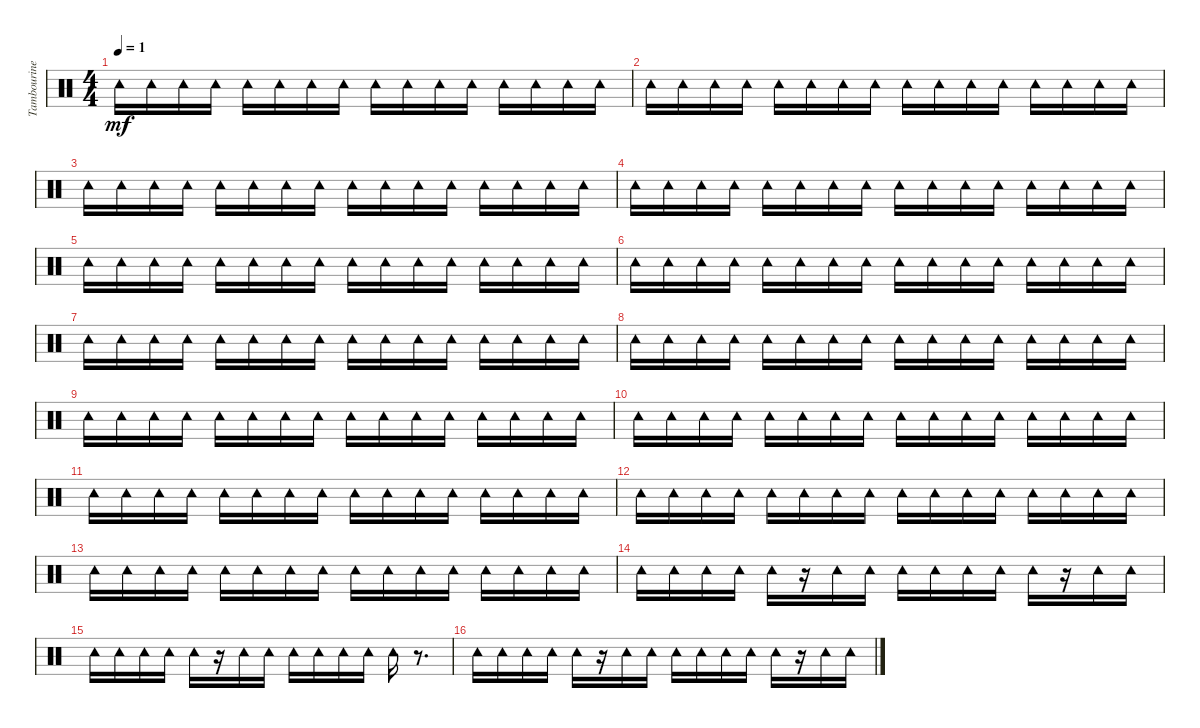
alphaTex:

\track ("Tambourine" "Tambourine") {instrument percussion}
\staff {score}
\articulation defaults
\ts (4 4)
\tempo 1
\clef neutral
\ks c "Tambourine (hit)".16{dy mf} "Tambourine (hit)".16 "Tambourine (hit)".16 "Tambourine (hit)".16 "Tambourine (hit)".16 "Tambourine (hit)".16 "Tambourine (hit)".16 "Tambourine (hit)".16 "Tambourine (hit)".16 "Tambourine (hit)".16 "Tambourine (hit)".16 "Tambourine (hit)".16 "Tambourine (hit)".16 "Tambourine (hit)".16 "Tambourine (hit)".16 "Tambourine (hit)".16
|
"Tambourine (hit)".16 "Tambourine (hit)".16 "Tambourine (hit)".16 "Tambourine (hit)".16 "Tambourine (hit)".16 "Tambourine (hit)".16 "Tambourine (hit)".16 "Tambourine (hit)".16 "Tambourine (hit)".16 "Tambourine (hit)".16 "Tambourine (hit)".16 "Tambourine (hit)".16 "Tambourine (hit)".16 "Tambourine (hit)".16 "Tambourine (hit)".16 "Tambourine (hit)".16 |
"Tambourine (hit)".16 "Tambourine (hit)".16 "Tambourine (hit)".16 "Tambourine (hit)".16 "Tambourine (hit)".16 "Tambourine (hit)".16 "Tambourine (hit)".16 "Tambourine (hit)".16 "Tambourine (hit)".16 "Tambourine (hit)".16 "Tambourine (hit)".16 "Tambourine (hit)".16 "Tambourine (hit)".16 "Tambourine (hit)".16 "Tambourine (hit)".16 "Tambourine (hit)".16 |
"Tambourine (hit)".16 "Tambourine (hit)".16 "Tambourine (hit)".16 "Tambourine (hit)".16 "Tambourine (hit)".16 "Tambourine (hit)".16 "Tambourine (hit)".16 "Tambourine (hit)".16 "Tambourine (hit)".16 "Tambourine (hit)".16 "Tambourine (hit)".16 "Tambourine (hit)".16 "Tambourine (hit)".16 "Tambourine (hit)".16 "Tambourine (hit)".16 "Tambourine (hit)".16 |
"Tambourine (hit)".16 "Tambourine (hit)".16 "Tambourine (hit)".16 "Tambourine (hit)".16 "Tambourine (hit)".16 "Tambourine (hit)".16 "Tambourine (hit)".16 "Tambourine (hit)".16 "Tambourine (hit)".16 "Tambourine (hit)".16 "Tambourine (hit)".16 "Tambourine (hit)".16 "Tambourine (hit)".16 "Tambourine (hit)".16 "Tambourine (hit)".16 "Tambourine (hit)".16 |
"Tambourine (hit)".16 "Tambourine (hit)".16 "Tambourine (hit)".16 "Tambourine (hit)".16 "Tambourine (hit)".16 "Tambourine (hit)".16 "Tambourine (hit)".16 "Tambourine (hit)".16 "Tambourine (hit)".16 "Tambourine (hit)".16 "Tambourine (hit)".16 "Tambourine (hit)".16 "Tambourine (hit)".16 "Tambourine (hit)".16 "Tambourine (hit)".16 "Tambourine (hit)".16 |
"Tambourine (hit)".16 "Tambourine (hit)".16 "Tambourine (hit)".16 "Tambourine (hit)".16 "Tambourine (hit)".16 "Tambourine (hit)".16 "Tambourine (hit)".16 "Tambourine (hit)".16 "Tambourine (hit)".16 "Tambourine (hit)".16 "Tambourine (hit)".16 "Tambourine (hit)".16 "Tambourine (hit)".16 "Tambourine (hit)".16 "Tambourine (hit)".16 "Tambourine (hit)".16 |
"Tambourine (hit)".16 "Tambourine (hit)".16 "Tambourine (hit)".16 "Tambourine (hit)".16 "Tambourine (hit)".16 "Tambourine (hit)".16 "Tambourine (hit)".16 "Tambourine (hit)".16 "Tambourine (hit)".16 "Tambourine (hit)".16 "Tambourine (hit)".16 "Tambourine (hit)".16 "Tambourine (hit)".16 "Tambourine (hit)".16 "Tambourine (hit)".16 "Tambourine (hit)".16 |
"Tambourine (hit)".16 "Tambourine (hit)".16 "Tambourine (hit)".16 "Tambourine (hit)".16 "Tambourine (hit)".16 "Tambourine (hit)".16 "Tambourine (hit)".16 "Tambourine (hit)".16 "Tambourine (hit)".16 "Tambourine (hit)".16 "Tambourine (hit)".16 "Tambourine (hit)".16 "Tambourine (hit)".16 "Tambourine (hit)".16 "Tambourine (hit)".16 "Tambourine (hit)".16 |
"Tambourine (hit)".16 "Tambourine (hit)".16 "Tambourine (hit)".16 "Tambourine (hit)".16 "Tambourine (hit)".16 "Tambourine (hit)".16 "Tambourine (hit)".16 "Tambourine (hit)".16 "Tambourine (hit)".16 "Tambourine (hit)".16 "Tambourine (hit)".16 "Tambourine (hit)".16 "Tambourine (hit)".16 "Tambourine (hit)".16 "Tambourine (hit)".16 "Tambourine (hit)".16 |
"Tambourine (hit)".16 "Tambourine (hit)".16 "Tambourine (hit)".16 "Tambourine (hit)".16 "Tambourine (hit)".16 "Tambourine (hit)".16 "Tambourine (hit)".16 "Tambourine (hit)".16 "Tambourine (hit)".16 "Tambourine (hit)".16 "Tambourine (hit)".16 "Tambourine (hit)".16 "Tambourine (hit)".16 "Tambourine (hit)".16 "Tambourine (hit)".16 "Tambourine (hit)".16 |
"Tambourine (hit)".16 "Tambourine (hit)".16 "Tambourine (hit)".16 "Tambourine (hit)".16 "Tambourine (hit)".16 "Tambourine (hit)".16 "Tambourine (hit)".16 "Tambourine (hit)".16 "Tambourine (hit)".16 "Tambourine (hit)".16 "Tambourine (hit)".16 "Tambourine (hit)".16 "Tambourine (hit)".16 "Tambourine (hit)".16 "Tambourine (hit)".16 "Tambourine (hit)".16 |
"Tambourine (hit)".16 "Tambourine (hit)".16 "Tambourine (hit)".16 "Tambourine (hit)".16 "Tambourine (hit)".16 "Tambourine (hit)".16 "Tambourine (hit)".16 "Tambourine (hit)".16 "Tambourine (hit)".16 "Tambourine (hit)".16 "Tambourine (hit)".16 "Tambourine (hit)".16 "Tambourine (hit)".16 "Tambourine (hit)".16 "Tambourine (hit)".16 "Tambourine (hit)".16 |
"Tambourine (hit)".16 "Tambourine (hit)".16 "Tambourine (hit)".16 "Tambourine (hit)".16 "Tambourine (hit)".16 r.16 "Tambourine (hit)".16 "Tambourine (hit)".16 "Tambourine (hit)".16 "Tambourine (hit)".16 "Tambourine (hit)".16 "Tambourine (hit)".16 "Tambourine (hit)".16 r.16 "Tambourine (hit)".16 "Tambourine (hit)".16 |
"Tambourine (hit)".16 "Tambourine (hit)".16 "Tambourine (hit)".16 "Tambourine (hit)".16 "Tambourine (hit)".16 r.16 "Tambourine (hit)".16 "Tambourine (hit)".16 "Tambourine (hit)".16 "Tambourine (hit)".16 "Tambourine (hit)".16 "Tambourine (hit)".16 "Tambourine (hit)".16 r.8{d} |
"Tambourine (hit)".16 "Tambourine (hit)".16 "Tambourine (hit)".16 "Tambourine (hit)".16 "Tambourine (hit)".16 r.16 "Tambourine (hit)".16 "Tambourine (hit)".16 "Tambourine (hit)".16 "Tambourine (hit)".16 "Tambourine (hit)".16 "Tambourine (hit)".16 "Tambourine (hit)".16 r.16 "Tambourine (hit)".16 "Tambourine (hit)".16
